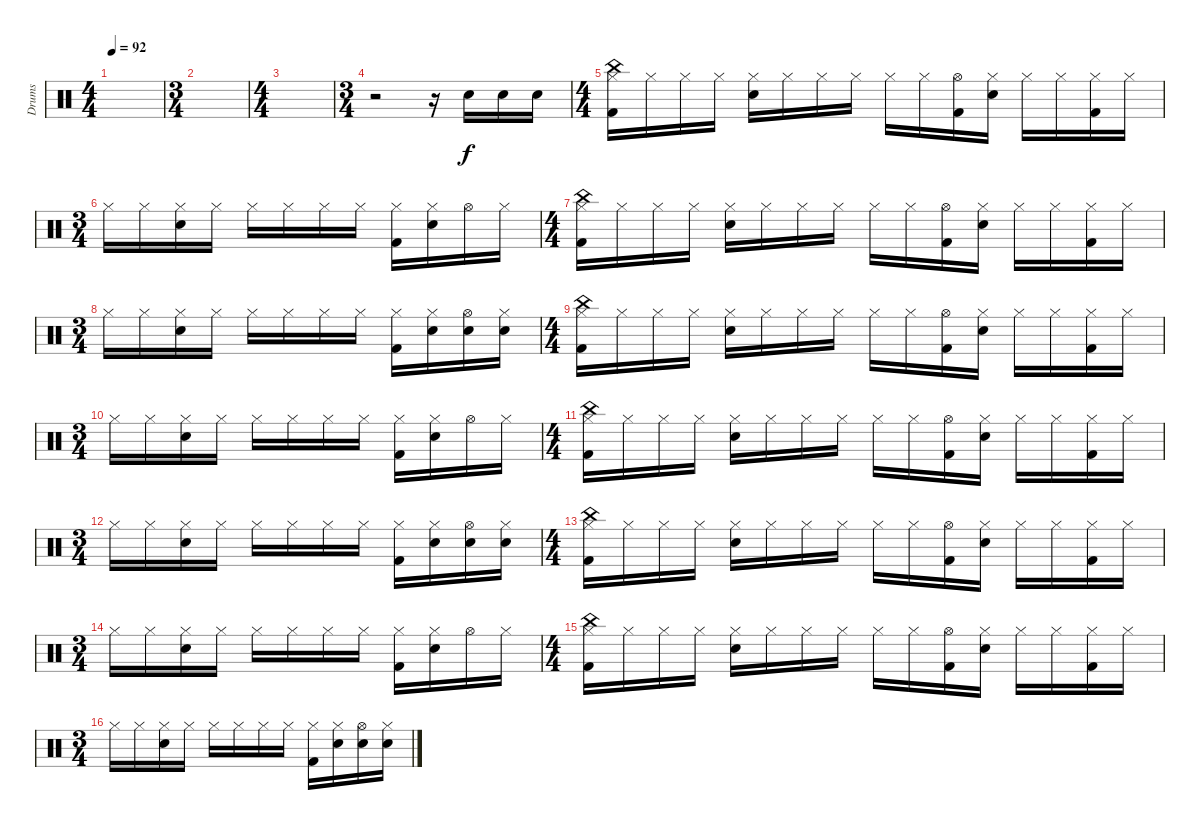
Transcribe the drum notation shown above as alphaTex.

\track ("Drums" "Drums") {instrument percussion}
\staff {score}
\articulation defaults
\ts (4 4)
\tempo 92
\clef neutral
\ks c
|
\ts (3 4)
|
\ts (4 4)
|
\ts (3 4)
r.2 r.16 "Snare (hit) 2".16 "Snare (hit) 2".16 "Snare (hit) 2".16 |
\ts (4 4)
("China (hit)" "Hi-Hat (closed)" "Kick (hit) 2").16 "Hi-Hat (closed)".16 "Hi-Hat (closed)".16 "Hi-Hat (closed)".16 ("Hi-Hat (closed)" "Snare (hit) 2").16 "Hi-Hat (closed)".16 "Hi-Hat (closed)".16 "Hi-Hat (closed)".16 "Hi-Hat (closed)".16 "Hi-Hat (closed)".16 ("Hi-Hat (open)" "Kick (hit) 2").16 ("Hi-Hat (closed)" "Snare (hit) 2").16 "Hi-Hat (closed)".16 "Hi-Hat (closed)".16 ("Hi-Hat (closed)" "Kick (hit) 2").16 "Hi-Hat (closed)".16 |
\ts (3 4)
"Hi-Hat (closed)".16 "Hi-Hat (closed)".16 ("Hi-Hat (closed)" "Snare (hit) 2").16 "Hi-Hat (closed)".16 "Hi-Hat (closed)".16 "Hi-Hat (closed)".16 "Hi-Hat (closed)".16 "Hi-Hat (closed)".16 ("Hi-Hat (closed)" "Kick (hit) 2").16 ("Hi-Hat (closed)" "Snare (hit) 2").16 "Hi-Hat (open)".16 "Hi-Hat (closed)".16 |
\ts (4 4)
("China (hit)" "Hi-Hat (closed)" "Kick (hit) 2").16 "Hi-Hat (closed)".16 "Hi-Hat (closed)".16 "Hi-Hat (closed)".16 ("Hi-Hat (closed)" "Snare (hit) 2").16 "Hi-Hat (closed)".16 "Hi-Hat (closed)".16 "Hi-Hat (closed)".16 "Hi-Hat (closed)".16 "Hi-Hat (closed)".16 ("Hi-Hat (open)" "Kick (hit) 2").16 ("Hi-Hat (closed)" "Snare (hit) 2").16 "Hi-Hat (closed)".16 "Hi-Hat (closed)".16 ("Hi-Hat (closed)" "Kick (hit) 2").16 "Hi-Hat (closed)".16 |
\ts (3 4)
"Hi-Hat (closed)".16 "Hi-Hat (closed)".16 ("Hi-Hat (closed)" "Snare (hit) 2").16 "Hi-Hat (closed)".16 "Hi-Hat (closed)".16 "Hi-Hat (closed)".16 "Hi-Hat (closed)".16 "Hi-Hat (closed)".16 ("Hi-Hat (closed)" "Kick (hit) 2").16 ("Hi-Hat (closed)" "Snare (hit) 2").16 ("Hi-Hat (open)" "Snare (hit) 2").16 ("Hi-Hat (closed)" "Snare (hit) 2").16 |
\ts (4 4)
("China (hit)" "Hi-Hat (closed)" "Kick (hit) 2").16 "Hi-Hat (closed)".16 "Hi-Hat (closed)".16 "Hi-Hat (closed)".16 ("Hi-Hat (closed)" "Snare (hit) 2").16 "Hi-Hat (closed)".16 "Hi-Hat (closed)".16 "Hi-Hat (closed)".16 "Hi-Hat (closed)".16 "Hi-Hat (closed)".16 ("Hi-Hat (open)" "Kick (hit) 2").16 ("Hi-Hat (closed)" "Snare (hit) 2").16 "Hi-Hat (closed)".16 "Hi-Hat (closed)".16 ("Hi-Hat (closed)" "Kick (hit) 2").16 "Hi-Hat (closed)".16 |
\ts (3 4)
"Hi-Hat (closed)".16 "Hi-Hat (closed)".16 ("Hi-Hat (closed)" "Snare (hit) 2").16 "Hi-Hat (closed)".16 "Hi-Hat (closed)".16 "Hi-Hat (closed)".16 "Hi-Hat (closed)".16 "Hi-Hat (closed)".16 ("Hi-Hat (closed)" "Kick (hit) 2").16 ("Hi-Hat (closed)" "Snare (hit) 2").16 "Hi-Hat (open)".16 "Hi-Hat (closed)".16 |
\ts (4 4)
("China (hit)" "Hi-Hat (closed)" "Kick (hit) 2").16 "Hi-Hat (closed)".16 "Hi-Hat (closed)".16 "Hi-Hat (closed)".16 ("Hi-Hat (closed)" "Snare (hit) 2").16 "Hi-Hat (closed)".16 "Hi-Hat (closed)".16 "Hi-Hat (closed)".16 "Hi-Hat (closed)".16 "Hi-Hat (closed)".16 ("Hi-Hat (open)" "Kick (hit) 2").16 ("Hi-Hat (closed)" "Snare (hit) 2").16 "Hi-Hat (closed)".16 "Hi-Hat (closed)".16 ("Hi-Hat (closed)" "Kick (hit) 2").16 "Hi-Hat (closed)".16 |
\ts (3 4)
"Hi-Hat (closed)".16 "Hi-Hat (closed)".16 ("Hi-Hat (closed)" "Snare (hit) 2").16 "Hi-Hat (closed)".16 "Hi-Hat (closed)".16 "Hi-Hat (closed)".16 "Hi-Hat (closed)".16 "Hi-Hat (closed)".16 ("Hi-Hat (closed)" "Kick (hit) 2").16 ("Hi-Hat (closed)" "Snare (hit) 2").16 ("Hi-Hat (open)" "Snare (hit) 2").16 ("Hi-Hat (closed)" "Snare (hit) 2").16 |
\ts (4 4)
("China (hit)" "Hi-Hat (closed)" "Kick (hit) 2").16 "Hi-Hat (closed)".16 "Hi-Hat (closed)".16 "Hi-Hat (closed)".16 ("Hi-Hat (closed)" "Snare (hit) 2").16 "Hi-Hat (closed)".16 "Hi-Hat (closed)".16 "Hi-Hat (closed)".16 "Hi-Hat (closed)".16 "Hi-Hat (closed)".16 ("Hi-Hat (open)" "Kick (hit) 2").16 ("Hi-Hat (closed)" "Snare (hit) 2").16 "Hi-Hat (closed)".16 "Hi-Hat (closed)".16 ("Hi-Hat (closed)" "Kick (hit) 2").16 "Hi-Hat (closed)".16 |
\ts (3 4)
"Hi-Hat (closed)".16 "Hi-Hat (closed)".16 ("Hi-Hat (closed)" "Snare (hit) 2").16 "Hi-Hat (closed)".16 "Hi-Hat (closed)".16 "Hi-Hat (closed)".16 "Hi-Hat (closed)".16 "Hi-Hat (closed)".16 ("Hi-Hat (closed)" "Kick (hit) 2").16 ("Hi-Hat (closed)" "Snare (hit) 2").16 "Hi-Hat (open)".16 "Hi-Hat (closed)".16 |
\ts (4 4)
("China (hit)" "Hi-Hat (closed)" "Kick (hit) 2").16 "Hi-Hat (closed)".16 "Hi-Hat (closed)".16 "Hi-Hat (closed)".16 ("Hi-Hat (closed)" "Snare (hit) 2").16 "Hi-Hat (closed)".16 "Hi-Hat (closed)".16 "Hi-Hat (closed)".16 "Hi-Hat (closed)".16 "Hi-Hat (closed)".16 ("Hi-Hat (open)" "Kick (hit) 2").16 ("Hi-Hat (closed)" "Snare (hit) 2").16 "Hi-Hat (closed)".16 "Hi-Hat (closed)".16 ("Hi-Hat (closed)" "Kick (hit) 2").16 "Hi-Hat (closed)".16 |
\ts (3 4)
"Hi-Hat (closed)".16 "Hi-Hat (closed)".16 ("Hi-Hat (closed)" "Snare (hit) 2").16 "Hi-Hat (closed)".16 "Hi-Hat (closed)".16 "Hi-Hat (closed)".16 "Hi-Hat (closed)".16 "Hi-Hat (closed)".16 ("Hi-Hat (closed)" "Kick (hit) 2").16 ("Hi-Hat (closed)" "Snare (hit) 2").16 ("Hi-Hat (open)" "Snare (hit) 2").16 ("Hi-Hat (closed)" "Snare (hit) 2").16
